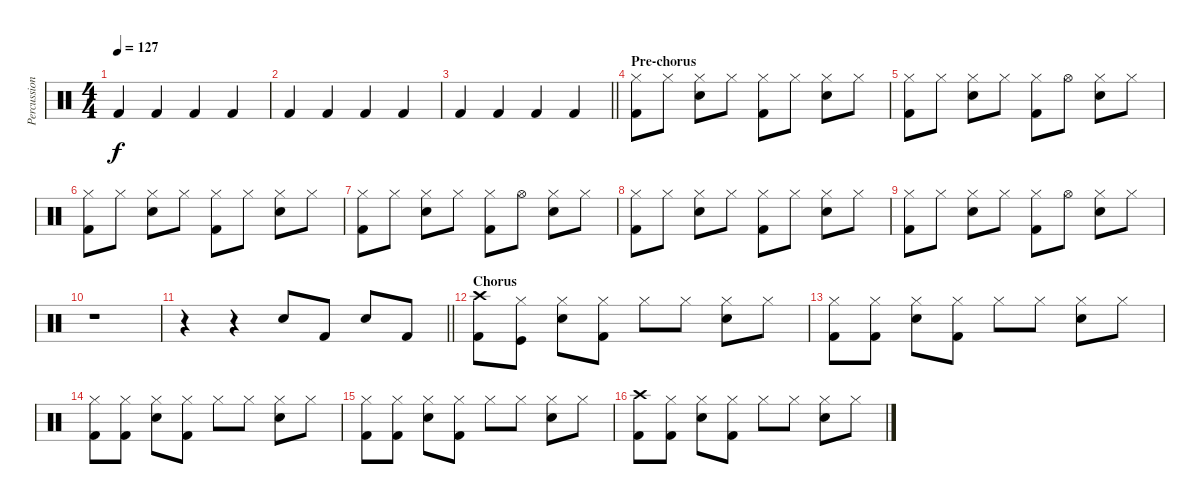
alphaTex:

\track ("Percussion" "Percussion") {instrument percussion}
\staff {score}
\articulation defaults
\ts (4 4)
\tempo 127
\clef neutral
\ks c "Kick (hit) 2".4{dy f} "Kick (hit) 2".4 "Kick (hit) 2".4 "Kick (hit) 2".4
|
"Kick (hit) 2".4 "Kick (hit) 2".4 "Kick (hit) 2".4 "Kick (hit) 2".4 |
\barLineRight lightlight "Kick (hit) 2".4 "Kick (hit) 2".4 "Kick (hit) 2".4 "Kick (hit) 2".4
|
\section ("" "Pre-chorus")
("Hi-Hat (closed)" "Kick (hit) 2").8 "Hi-Hat (closed)".8 ("Hi-Hat (closed)" "Snare (hit) 2").8 "Hi-Hat (closed)".8 ("Hi-Hat (closed)" "Kick (hit) 2").8 "Hi-Hat (closed)".8 ("Hi-Hat (closed)" "Snare (hit) 2").8 "Hi-Hat (closed)".8 |
("Hi-Hat (closed)" "Kick (hit) 2").8 "Hi-Hat (closed)".8 ("Hi-Hat (closed)" "Snare (hit) 2").8 "Hi-Hat (closed)".8 ("Hi-Hat (closed)" "Kick (hit) 2").8 "Hi-Hat (open)".8 ("Hi-Hat (closed)" "Snare (hit) 2").8 "Hi-Hat (closed)".8 |
("Hi-Hat (closed)" "Kick (hit) 2").8 "Hi-Hat (closed)".8 ("Hi-Hat (closed)" "Snare (hit) 2").8 "Hi-Hat (closed)".8 ("Hi-Hat (closed)" "Kick (hit) 2").8 "Hi-Hat (closed)".8 ("Hi-Hat (closed)" "Snare (hit) 2").8 "Hi-Hat (closed)".8 |
("Hi-Hat (closed)" "Kick (hit) 2").8 "Hi-Hat (closed)".8 ("Hi-Hat (closed)" "Snare (hit) 2").8 "Hi-Hat (closed)".8 ("Hi-Hat (closed)" "Kick (hit) 2").8 "Hi-Hat (open)".8 ("Hi-Hat (closed)" "Snare (hit) 2").8 "Hi-Hat (closed)".8 |
("Hi-Hat (closed)" "Kick (hit) 2").8 "Hi-Hat (closed)".8 ("Hi-Hat (closed)" "Snare (hit) 2").8 "Hi-Hat (closed)".8 ("Hi-Hat (closed)" "Kick (hit) 2").8 "Hi-Hat (closed)".8 ("Hi-Hat (closed)" "Snare (hit) 2").8 "Hi-Hat (closed)".8 |
("Hi-Hat (closed)" "Kick (hit) 2").8 "Hi-Hat (closed)".8 ("Hi-Hat (closed)" "Snare (hit) 2").8 "Hi-Hat (closed)".8 ("Hi-Hat (closed)" "Kick (hit) 2").8 "Hi-Hat (open)".8 ("Hi-Hat (closed)" "Snare (hit) 2").8 "Hi-Hat (closed)".8 |
r.1 |
\barLineRight lightlight
r.4 r.4 "Snare (hit) 2".8 "Kick (hit) 2".8 "Snare (hit) 2".8 "Kick (hit) 2".8 |
\section ("" "Chorus")
("Crash high (hit)" "Kick (hit) 2").8 ("Hi-Hat (closed)" "Kick (hit)").8 ("Hi-Hat (closed)" "Snare (hit) 2").8 ("Hi-Hat (closed)" "Kick (hit) 2").8 "Hi-Hat (closed)".8 "Hi-Hat (closed)".8 ("Hi-Hat (closed)" "Snare (hit) 2").8 "Hi-Hat (closed)".8 |
("Hi-Hat (closed)" "Kick (hit) 2").8 ("Hi-Hat (closed)" "Kick (hit) 2").8 ("Hi-Hat (closed)" "Snare (hit) 2").8 ("Hi-Hat (closed)" "Kick (hit) 2").8 "Hi-Hat (closed)".8 "Hi-Hat (closed)".8 ("Hi-Hat (closed)" "Snare (hit) 2").8 "Hi-Hat (closed)".8 |
("Hi-Hat (closed)" "Kick (hit) 2").8 ("Hi-Hat (closed)" "Kick (hit) 2").8 ("Hi-Hat (closed)" "Snare (hit) 2").8 ("Hi-Hat (closed)" "Kick (hit) 2").8 "Hi-Hat (closed)".8 "Hi-Hat (closed)".8 ("Hi-Hat (closed)" "Snare (hit) 2").8 "Hi-Hat (closed)".8 |
("Hi-Hat (closed)" "Kick (hit) 2").8 ("Hi-Hat (closed)" "Kick (hit) 2").8 ("Hi-Hat (closed)" "Snare (hit) 2").8 ("Hi-Hat (closed)" "Kick (hit) 2").8 "Hi-Hat (closed)".8 "Hi-Hat (closed)".8 ("Hi-Hat (closed)" "Snare (hit) 2").8 "Hi-Hat (closed)".8 |
("Crash high (hit)" "Kick (hit) 2").8 ("Hi-Hat (closed)" "Kick (hit) 2").8 ("Hi-Hat (closed)" "Snare (hit) 2").8 ("Hi-Hat (closed)" "Kick (hit) 2").8 "Hi-Hat (closed)".8 "Hi-Hat (closed)".8 ("Hi-Hat (closed)" "Snare (hit) 2").8 "Hi-Hat (closed)".8
